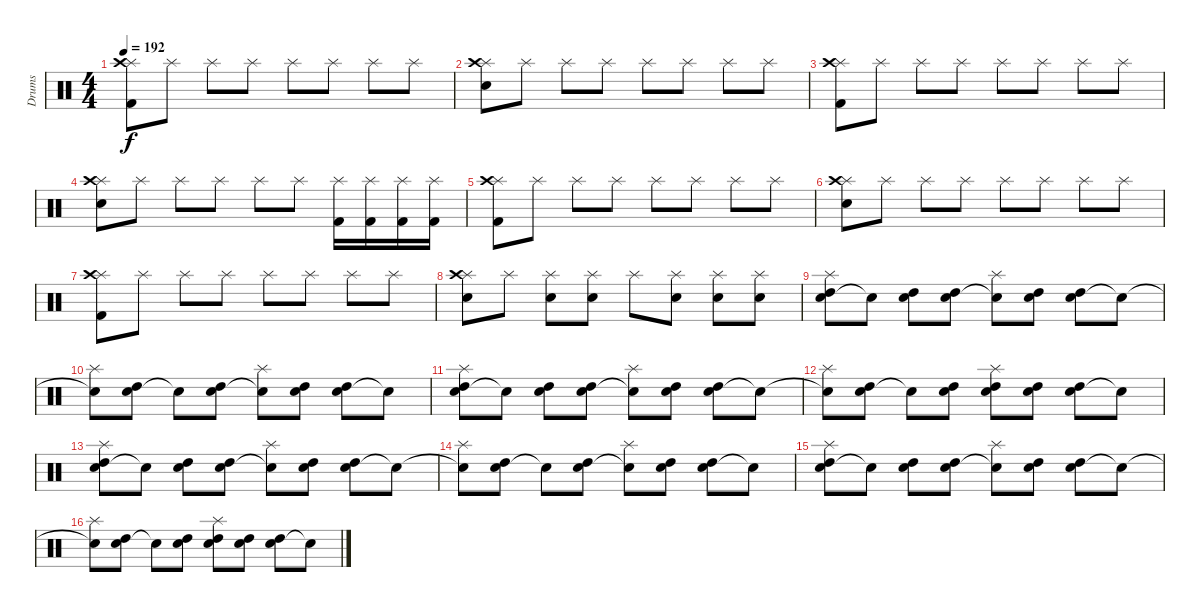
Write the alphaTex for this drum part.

\track ("Drums" "Drums") {instrument percussion}
\staff {score}
\articulation defaults
\ts (4 4)
\tempo 192
\clef neutral
\ks c
("Splash (hit)" "Crash high (hit)" "Kick (hit) 2").8{dy f} "Splash (hit)".8 "Splash (hit)".8 "Splash (hit)".8 "Splash (hit)".8 "Splash (hit)".8 "Splash (hit)".8 "Splash (hit)".8 |
("Splash (hit)" "Crash high (hit)" "Electric Snare (hit)").8 "Splash (hit)".8 "Splash (hit)".8 "Splash (hit)".8 "Splash (hit)".8 "Splash (hit)".8 "Splash (hit)".8 "Splash (hit)".8 |
("Splash (hit)" "Crash high (hit)" "Kick (hit) 2").8 "Splash (hit)".8 "Splash (hit)".8 "Splash (hit)".8 "Splash (hit)".8 "Splash (hit)".8 "Splash (hit)".8 "Splash (hit)".8 |
("Splash (hit)" "Crash high (hit)" "Electric Snare (hit)").8 "Splash (hit)".8 "Splash (hit)".8 "Splash (hit)".8 "Splash (hit)".8 "Splash (hit)".8 ("Splash (hit)" "Kick (hit) 2").16 ("Splash (hit)" "Kick (hit) 2").16 ("Splash (hit)" "Kick (hit) 2").16 ("Splash (hit)" "Kick (hit) 2").16 |
("Splash (hit)" "Crash high (hit)" "Kick (hit) 2").8 "Splash (hit)".8 "Splash (hit)".8 "Splash (hit)".8 "Splash (hit)".8 "Splash (hit)".8 "Splash (hit)".8 "Splash (hit)".8 |
("Splash (hit)" "Crash high (hit)" "Electric Snare (hit)").8 "Splash (hit)".8 "Splash (hit)".8 "Splash (hit)".8 "Splash (hit)".8 "Splash (hit)".8 "Splash (hit)".8 "Splash (hit)".8 |
("Splash (hit)" "Crash high (hit)" "Kick (hit) 2").8 "Splash (hit)".8 "Splash (hit)".8 "Splash (hit)".8 "Splash (hit)".8 "Splash (hit)".8 "Splash (hit)".8 "Splash (hit)".8 |
("Splash (hit)" "Crash high (hit)" "Electric Snare (hit)").8 "Splash (hit)".8 ("Splash (hit)" "Electric Snare (hit)").8 ("Splash (hit)" "Electric Snare (hit)").8 "Splash (hit)".8 ("Splash (hit)" "Electric Snare (hit)").8 ("Splash (hit)" "Electric Snare (hit)").8 ("Splash (hit)" "Snare (hit) 2").8 |
("Electric Snare (hit)" "High Tom (hit)" "Splash (hit)").8 "Snare (hit)"{t}.8 ("Electric Snare (hit)" "High Tom (hit)").8 ("Electric Snare (hit)" "High Tom (hit)").8 ("Snare (hit)"{t} "Splash (hit)").8 ("Electric Snare (hit)" "High Tom (hit)").8 ("Electric Snare (hit)" "High Tom (hit)").8 "Snare (hit)"{t}.8 |
("Electric Snare (hit)"{t} "Splash (hit)").8 ("Electric Snare (hit)" "High Tom (hit)").8 "Snare (hit)"{t}.8 ("Electric Snare (hit)" "High Tom (hit)").8 ("Snare (hit)"{t} "Splash (hit)").8 ("Electric Snare (hit)" "High Tom (hit)").8 ("Electric Snare (hit)" "High Tom (hit)").8 "Snare (hit)"{t}.8 |
("Electric Snare (hit)" "High Tom (hit)" "Splash (hit)").8 "Snare (hit)"{t}.8 ("Electric Snare (hit)" "High Tom (hit)").8 ("Electric Snare (hit)" "High Tom (hit)").8 ("Snare (hit)"{t} "Splash (hit)").8 ("Electric Snare (hit)" "High Tom (hit)").8 ("Electric Snare (hit)" "High Tom (hit)").8 "Snare (hit)"{t}.8 |
("Electric Snare (hit)"{t} "Splash (hit)").8 ("Electric Snare (hit)" "High Tom (hit)").8 "Snare (hit)"{t}.8 ("Electric Snare (hit)" "High Tom (hit)").8 ("Electric Snare (hit)" "High Tom (hit)" "Splash (hit)").8 ("Electric Snare (hit)" "High Tom (hit)").8 ("Electric Snare (hit)" "High Tom (hit)").8 "Snare (hit)"{t}.8 |
("Electric Snare (hit)" "High Tom (hit)" "Splash (hit)").8 "Snare (hit)"{t}.8 ("Electric Snare (hit)" "High Tom (hit)").8 ("Electric Snare (hit)" "High Tom (hit)").8 ("Snare (hit)"{t} "Splash (hit)").8 ("Electric Snare (hit)" "High Tom (hit)").8 ("Electric Snare (hit)" "High Tom (hit)").8 "Snare (hit)"{t}.8 |
("Electric Snare (hit)"{t} "Splash (hit)").8 ("Electric Snare (hit)" "High Tom (hit)").8 "Snare (hit)"{t}.8 ("Electric Snare (hit)" "High Tom (hit)").8 ("Snare (hit)"{t} "Splash (hit)").8 ("Electric Snare (hit)" "High Tom (hit)").8 ("Electric Snare (hit)" "High Tom (hit)").8 "Snare (hit)"{t}.8 |
("Electric Snare (hit)" "High Tom (hit)" "Splash (hit)").8 "Snare (hit)"{t}.8 ("Electric Snare (hit)" "High Tom (hit)").8 ("Electric Snare (hit)" "High Tom (hit)").8 ("Snare (hit)"{t} "Splash (hit)").8 ("Electric Snare (hit)" "High Tom (hit)").8 ("Electric Snare (hit)" "High Tom (hit)").8 "Snare (hit)"{t}.8 |
("Electric Snare (hit)"{t} "Splash (hit)").8 ("Electric Snare (hit)" "High Tom (hit)").8 "Snare (hit)"{t}.8 ("Electric Snare (hit)" "High Tom (hit)").8 ("Electric Snare (hit)" "High Tom (hit)" "Splash (hit)").8 ("Electric Snare (hit)" "High Tom (hit)").8 ("Electric Snare (hit)" "High Tom (hit)").8 "Snare (hit)"{t}.8
